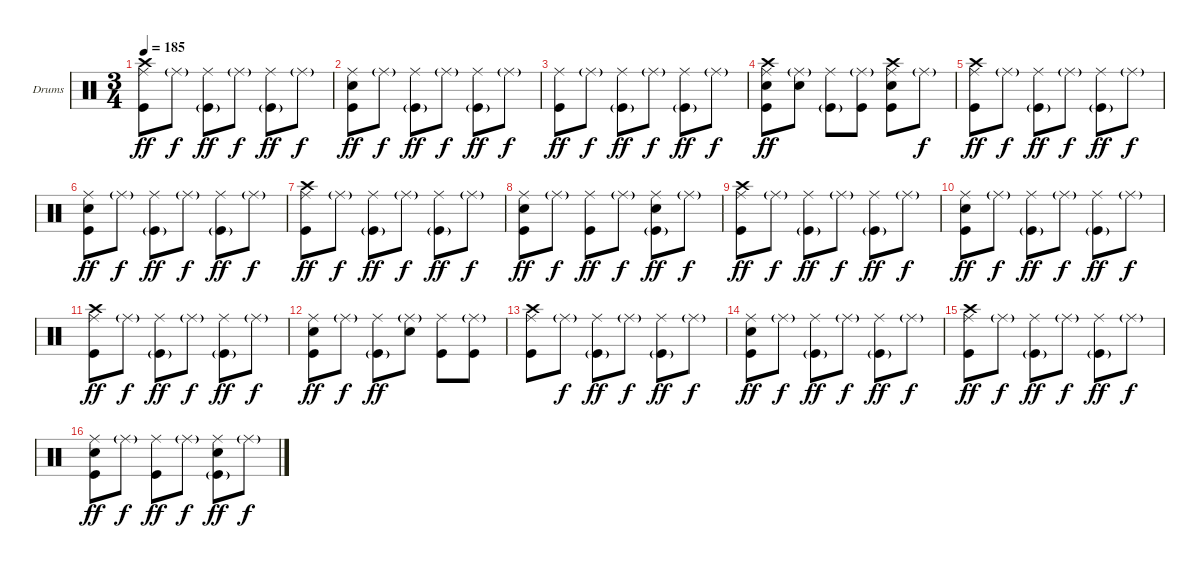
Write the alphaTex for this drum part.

\bracketExtendMode groupsimilarinstruments
\firstSystemTrackNameOrientation horizontal
\otherSystemsTrackNameOrientation horizontal
\track ("Drumkit" "Drums") {instrument percussion}
\staff {score}
\articulation defaults
\ts (3 4)
\tempo 185
\clef neutral
\ks c
("Crash high (hit)" "Ride (middle)" "Kick (hit)").8{dy ff} "Ride (middle)"{g}.8{dy f} ("Ride (middle)" "Kick (hit)"{g}).8{dy ff} "Ride (middle)"{g}.8{dy f} ("Ride (middle)" "Kick (hit)"{g}).8{dy ff} "Ride (middle)"{g}.8{dy f} |
("Ride (middle)" "Snare (hit) 2" "Kick (hit)").8{dy ff} "Ride (middle)"{g}.8{dy f} ("Ride (middle)" "Kick (hit)"{g}).8{dy ff} "Ride (middle)"{g}.8{dy f} ("Ride (middle)" "Kick (hit)"{g}).8{dy ff} "Ride (middle)"{g}.8{dy f} |
("Ride (middle)" "Kick (hit)").8{dy ff} "Ride (middle)"{g}.8{dy f} ("Ride (middle)" "Kick (hit)"{g}).8{dy ff} "Ride (middle)"{g}.8{dy f} ("Ride (middle)" "Kick (hit)"{g}).8{dy ff} "Ride (middle)"{g}.8{dy f} |
("Crash high (hit)" "Ride (middle)" "Snare (hit) 2" "Kick (hit)").8{dy ff} ("Ride (middle)"{g} "Snare (hit) 2").8 ("Ride (middle)" "Kick (hit)"{g}).8 ("Ride (middle)"{g} "Kick (hit)").8 ("Crash high (hit)" "Ride (middle)" "Snare (hit) 2" "Kick (hit)").8 "Ride (middle)"{g}.8{dy f} |
("Crash high (hit)" "Ride (middle)" "Kick (hit)").8{dy ff} "Ride (middle)"{g}.8{dy f} ("Ride (middle)" "Kick (hit)"{g}).8{dy ff} "Ride (middle)"{g}.8{dy f} ("Ride (middle)" "Kick (hit)"{g}).8{dy ff} "Ride (middle)"{g}.8{dy f} |
("Ride (middle)" "Snare (hit) 2" "Kick (hit)").8{dy ff} "Ride (middle)"{g}.8{dy f} ("Ride (middle)" "Kick (hit)"{g}).8{dy ff} "Ride (middle)"{g}.8{dy f} ("Ride (middle)" "Kick (hit)"{g}).8{dy ff} "Ride (middle)"{g}.8{dy f} |
("Crash high (hit)" "Ride (middle)" "Kick (hit)").8{dy ff} "Ride (middle)"{g}.8{dy f} ("Ride (middle)" "Kick (hit)"{g}).8{dy ff} "Ride (middle)"{g}.8{dy f} ("Ride (middle)" "Kick (hit)"{g}).8{dy ff} "Ride (middle)"{g}.8{dy f} |
("Ride (middle)" "Snare (hit) 2" "Kick (hit)").8{dy ff} "Ride (middle)"{g}.8{dy f} ("Ride (middle)" "Kick (hit)").8{dy ff} "Ride (middle)"{g}.8{dy f} ("Ride (middle)" "Snare (hit) 2" "Kick (hit)"{g}).8{dy ff} "Ride (middle)"{g}.8{dy f} |
("Crash high (hit)" "Ride (middle)" "Kick (hit)").8{dy ff} "Ride (middle)"{g}.8{dy f} ("Ride (middle)" "Kick (hit)"{g}).8{dy ff} "Ride (middle)"{g}.8{dy f} ("Ride (middle)" "Kick (hit)"{g}).8{dy ff} "Ride (middle)"{g}.8{dy f} |
("Ride (middle)" "Snare (hit) 2" "Kick (hit)").8{dy ff} "Ride (middle)"{g}.8{dy f} ("Ride (middle)" "Kick (hit)"{g}).8{dy ff} "Ride (middle)"{g}.8{dy f} ("Ride (middle)" "Kick (hit)"{g}).8{dy ff} "Ride (middle)"{g}.8{dy f} |
("Crash high (hit)" "Ride (middle)" "Kick (hit)").8{dy ff} "Ride (middle)"{g}.8{dy f} ("Ride (middle)" "Kick (hit)"{g}).8{dy ff} "Ride (middle)"{g}.8{dy f} ("Ride (middle)" "Kick (hit)"{g}).8{dy ff} "Ride (middle)"{g}.8{dy f} |
("Ride (middle)" "Snare (hit) 2" "Kick (hit)").8{dy ff} "Ride (middle)"{g}.8{dy f} ("Ride (middle)" "Kick (hit)"{g}).8{dy ff} ("Ride (middle)"{g} "Snare (hit) 2").8 ("Ride (middle)" "Kick (hit)").8 ("Ride (middle)"{g} "Kick (hit)").8 |
("Crash high (hit)" "Ride (middle)" "Kick (hit)").8 "Ride (middle)"{g}.8{dy f} ("Ride (middle)" "Kick (hit)"{g}).8{dy ff} "Ride (middle)"{g}.8{dy f} ("Ride (middle)" "Kick (hit)"{g}).8{dy ff} "Ride (middle)"{g}.8{dy f} |
("Ride (middle)" "Snare (hit) 2" "Kick (hit)").8{dy ff} "Ride (middle)"{g}.8{dy f} ("Ride (middle)" "Kick (hit)"{g}).8{dy ff} "Ride (middle)"{g}.8{dy f} ("Ride (middle)" "Kick (hit)"{g}).8{dy ff} "Ride (middle)"{g}.8{dy f} |
("Crash high (hit)" "Ride (middle)" "Kick (hit)").8{dy ff} "Ride (middle)"{g}.8{dy f} ("Ride (middle)" "Kick (hit)"{g}).8{dy ff} "Ride (middle)"{g}.8{dy f} ("Ride (middle)" "Kick (hit)"{g}).8{dy ff} "Ride (middle)"{g}.8{dy f} |
("Ride (middle)" "Snare (hit) 2" "Kick (hit)").8{dy ff} "Ride (middle)"{g}.8{dy f} ("Ride (middle)" "Kick (hit)").8{dy ff} "Ride (middle)"{g}.8{dy f} ("Ride (middle)" "Snare (hit) 2" "Kick (hit)"{g}).8{dy ff} "Ride (middle)"{g}.8{dy f}
